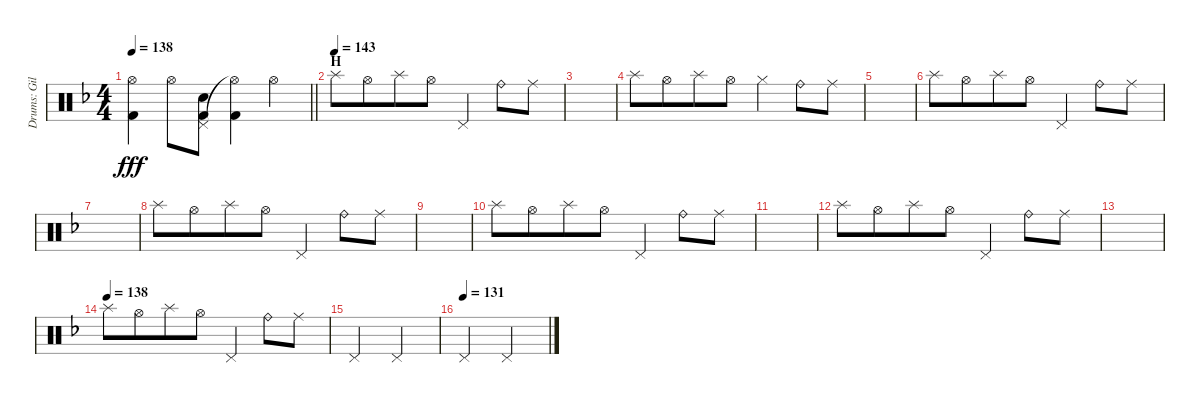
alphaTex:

\track ("Drums: Gil" "Drums: Gil") {instrument percussion}
\staff {score}
\articulation defaults
\ts (4 4)
\tempo 138
\clef neutral
\barLineRight lightlight
\ks f
("Hi-Hat (open)"{t} "Kick (hit) 2").4{dy fff} "Hi-Hat (open)".8 ("Pedal Hi-Hat (hit)" "Snare (hit) 2" "Kick (hit) 2").8 ("Hi-Hat (open)"{t} "Kick (hit) 2").4 "Hi-Hat (open)".4 |
\section ("" "H")
\tempo (143)
"Splash (hit)".8 "Hi-Hat (open)".8{beam merge} "Splash (hit)".8 "Hi-Hat (open)".8 "Pedal Hi-Hat (hit)".4 "Ride (bell)".8 "Ride (middle)".8 |
|
"Splash (hit)".8 "Hi-Hat (open)".8{beam merge} "Splash (hit)".8 "Hi-Hat (open)".8 "Hi-Hat (closed)".4 "Ride (bell)".8 "Ride (middle)".8 |
|
"Splash (hit)".8 "Hi-Hat (open)".8{beam merge} "Splash (hit)".8 "Hi-Hat (open)".8 "Pedal Hi-Hat (hit)".4 "Ride (bell)".8 "Ride (middle)".8 |
|
"Splash (hit)".8 "Hi-Hat (open)".8{beam merge} "Splash (hit)".8 "Hi-Hat (open)".8 "Pedal Hi-Hat (hit)".4 "Ride (bell)".8 "Ride (middle)".8 |
|
"Splash (hit)".8 "Hi-Hat (open)".8{beam merge} "Splash (hit)".8 "Hi-Hat (open)".8 "Pedal Hi-Hat (hit)".4 "Ride (bell)".8 "Ride (middle)".8 |
|
"Splash (hit)".8 "Hi-Hat (open)".8{beam merge} "Splash (hit)".8 "Hi-Hat (open)".8 "Pedal Hi-Hat (hit)".4 "Ride (bell)".8 "Ride (middle)".8 |
|
\tempo (138)
"Splash (hit)".8 "Hi-Hat (open)".8{beam merge} "Splash (hit)".8 "Hi-Hat (open)".8 "Pedal Hi-Hat (hit)".4 "Ride (bell)".8 "Ride (middle)".8 |
"Pedal Hi-Hat (hit)".2 "Pedal Hi-Hat (hit)".2 |
\tempo (131)
"Pedal Hi-Hat (hit)".2 "Pedal Hi-Hat (hit)".2
